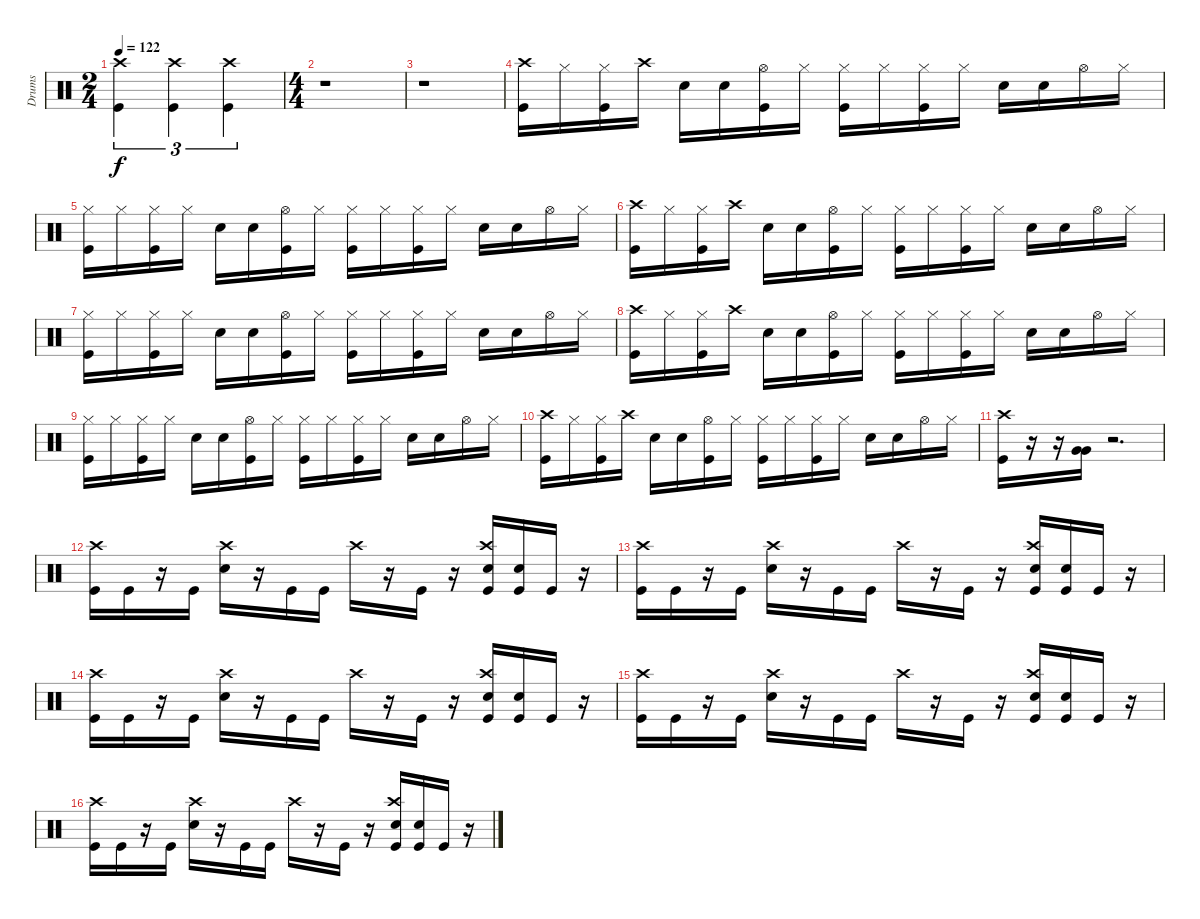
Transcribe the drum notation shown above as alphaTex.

\track ("Drums" "Drums") {instrument percussion}
\staff {score}
\articulation defaults
\ts (2 4)
\tempo 122
\clef neutral
\ks c
("Kick (hit)" "Crash high (hit)").4{tu (3 2) dy f} ("Kick (hit)" "Crash high (hit)").4{tu (3 2)} ("Kick (hit)" "Crash high (hit)").4{tu (3 2)} |
\ts (4 4)
r.1 |
r.1 |
("Kick (hit)" "Crash high (hit)").16 "Hi-Hat (closed)".16 ("Kick (hit)" "Hi-Hat (closed)").16 "Crash high (hit)".16 "Snare (hit) 2".16 "Snare (hit) 2".16 ("Kick (hit)" "Hi-Hat (open)").16 "Hi-Hat (closed)".16 ("Kick (hit)" "Hi-Hat (closed)").16 "Hi-Hat (closed)".16 ("Kick (hit)" "Hi-Hat (closed)").16 "Hi-Hat (closed)".16 "Snare (hit) 2".16 "Snare (hit) 2".16 "Hi-Hat (open)".16 "Hi-Hat (closed)".16 |
("Kick (hit)" "Hi-Hat (closed)").16 "Hi-Hat (closed)".16 ("Kick (hit)" "Hi-Hat (closed)").16 "Hi-Hat (closed)".16 "Snare (hit) 2".16 "Snare (hit) 2".16 ("Kick (hit)" "Hi-Hat (open)").16 "Hi-Hat (closed)".16 ("Kick (hit)" "Hi-Hat (closed)").16 "Hi-Hat (closed)".16 ("Kick (hit)" "Hi-Hat (closed)").16 "Hi-Hat (closed)".16 "Snare (hit) 2".16 "Snare (hit) 2".16 "Hi-Hat (open)".16 "Hi-Hat (closed)".16 |
("Kick (hit)" "Crash high (hit)").16 "Hi-Hat (closed)".16 ("Kick (hit)" "Hi-Hat (closed)").16 "Crash high (hit)".16 "Snare (hit) 2".16 "Snare (hit) 2".16 ("Kick (hit)" "Hi-Hat (open)").16 "Hi-Hat (closed)".16 ("Kick (hit)" "Hi-Hat (closed)").16 "Hi-Hat (closed)".16 ("Kick (hit)" "Hi-Hat (closed)").16 "Hi-Hat (closed)".16 "Snare (hit) 2".16 "Snare (hit) 2".16 "Hi-Hat (open)".16 "Hi-Hat (closed)".16 |
("Kick (hit)" "Hi-Hat (closed)").16 "Hi-Hat (closed)".16 ("Kick (hit)" "Hi-Hat (closed)").16 "Hi-Hat (closed)".16 "Snare (hit) 2".16 "Snare (hit) 2".16 ("Kick (hit)" "Hi-Hat (open)").16 "Hi-Hat (closed)".16 ("Kick (hit)" "Hi-Hat (closed)").16 "Hi-Hat (closed)".16 ("Kick (hit)" "Hi-Hat (closed)").16 "Hi-Hat (closed)".16 "Snare (hit) 2".16 "Snare (hit) 2".16 "Hi-Hat (open)".16 "Hi-Hat (closed)".16 |
("Kick (hit)" "Crash high (hit)").16 "Hi-Hat (closed)".16 ("Kick (hit)" "Hi-Hat (closed)").16 "Crash high (hit)".16 "Snare (hit) 2".16 "Snare (hit) 2".16 ("Kick (hit)" "Hi-Hat (open)").16 "Hi-Hat (closed)".16 ("Kick (hit)" "Hi-Hat (closed)").16 "Hi-Hat (closed)".16 ("Kick (hit)" "Hi-Hat (closed)").16 "Hi-Hat (closed)".16 "Snare (hit) 2".16 "Snare (hit) 2".16 "Hi-Hat (open)".16 "Hi-Hat (closed)".16 |
("Kick (hit)" "Hi-Hat (closed)").16 "Hi-Hat (closed)".16 ("Kick (hit)" "Hi-Hat (closed)").16 "Hi-Hat (closed)".16 "Snare (hit) 2".16 "Snare (hit) 2".16 ("Kick (hit)" "Hi-Hat (open)").16 "Hi-Hat (closed)".16 ("Kick (hit)" "Hi-Hat (closed)").16 "Hi-Hat (closed)".16 ("Kick (hit)" "Hi-Hat (closed)").16 "Hi-Hat (closed)".16 "Snare (hit) 2".16 "Snare (hit) 2".16 "Hi-Hat (open)".16 "Hi-Hat (closed)".16 |
("Kick (hit)" "Crash high (hit)").16 "Hi-Hat (closed)".16 ("Kick (hit)" "Hi-Hat (closed)").16 "Crash high (hit)".16 "Snare (hit) 2".16 "Snare (hit) 2".16 ("Kick (hit)" "Hi-Hat (open)").16 "Hi-Hat (closed)".16 ("Kick (hit)" "Hi-Hat (closed)").16 "Hi-Hat (closed)".16 ("Kick (hit)" "Hi-Hat (closed)").16 "Hi-Hat (closed)".16 "Snare (hit) 2".16 "Snare (hit) 2".16 "Hi-Hat (open)".16 "Hi-Hat (closed)".16 |
("Kick (hit)" "Crash high (hit)").16 r.16 r.16 ("Very Low Tom (hit)" "Very Low Tom (hit)").16 r.2{d} |
("Kick (hit)" "Crash high (hit)").16 "Kick (hit)".16 r.16 "Kick (hit)".16 ("Snare (hit) 2" "Crash high (hit)").16 r.16 "Kick (hit)".16 "Kick (hit)".16 "Crash high (hit)".16 r.16 "Kick (hit)".16 r.16 ("Snare (hit) 2" "Kick (hit)" "Crash high (hit)").16 ("Snare (hit) 2" "Kick (hit)").16 "Kick (hit)".16 r.16 |
("Kick (hit)" "Crash high (hit)").16 "Kick (hit)".16 r.16 "Kick (hit)".16 ("Snare (hit) 2" "Crash high (hit)").16 r.16 "Kick (hit)".16 "Kick (hit)".16 "Crash high (hit)".16 r.16 "Kick (hit)".16 r.16 ("Snare (hit) 2" "Kick (hit)" "Crash high (hit)").16 ("Snare (hit) 2" "Kick (hit)").16 "Kick (hit)".16 r.16 |
("Kick (hit)" "Crash high (hit)").16 "Kick (hit)".16 r.16 "Kick (hit)".16 ("Snare (hit) 2" "Crash high (hit)").16 r.16 "Kick (hit)".16 "Kick (hit)".16 "Crash high (hit)".16 r.16 "Kick (hit)".16 r.16 ("Snare (hit) 2" "Kick (hit)" "Crash high (hit)").16 ("Snare (hit) 2" "Kick (hit)").16 "Kick (hit)".16 r.16 |
("Kick (hit)" "Crash high (hit)").16 "Kick (hit)".16 r.16 "Kick (hit)".16 ("Snare (hit) 2" "Crash high (hit)").16 r.16 "Kick (hit)".16 "Kick (hit)".16 "Crash high (hit)".16 r.16 "Kick (hit)".16 r.16 ("Snare (hit) 2" "Kick (hit)" "Crash high (hit)").16 ("Snare (hit) 2" "Kick (hit)").16 "Kick (hit)".16 r.16 |
("Kick (hit)" "Crash high (hit)").16 "Kick (hit)".16 r.16 "Kick (hit)".16 ("Snare (hit) 2" "Crash high (hit)").16 r.16 "Kick (hit)".16 "Kick (hit)".16 "Crash high (hit)".16 r.16 "Kick (hit)".16 r.16 ("Snare (hit) 2" "Kick (hit)" "Crash high (hit)").16 ("Snare (hit) 2" "Kick (hit)").16 "Kick (hit)".16 r.16
